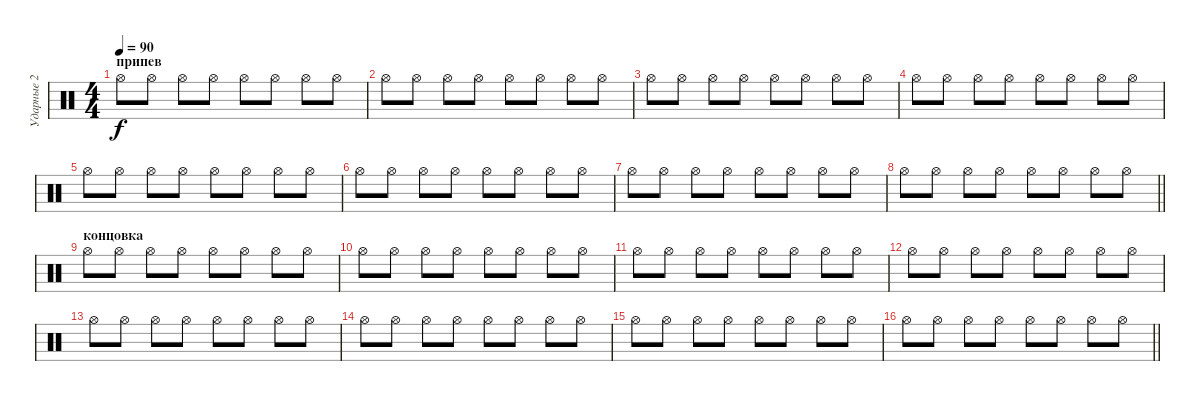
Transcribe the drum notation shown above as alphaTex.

\track ("Ударные 2" "Ударные 2") {instrument percussion}
\staff {score}
\articulation defaults
\ts (4 4)
\section ("" "припев")
\tempo 90
\clef neutral
\ks c "Hi-Hat (open)".8{dy f} "Hi-Hat (open)".8 "Hi-Hat (open)".8 "Hi-Hat (open)".8 "Hi-Hat (open)".8 "Hi-Hat (open)".8 "Hi-Hat (open)".8 "Hi-Hat (open)".8
|
"Hi-Hat (open)".8 "Hi-Hat (open)".8 "Hi-Hat (open)".8 "Hi-Hat (open)".8 "Hi-Hat (open)".8 "Hi-Hat (open)".8 "Hi-Hat (open)".8 "Hi-Hat (open)".8 |
"Hi-Hat (open)".8 "Hi-Hat (open)".8 "Hi-Hat (open)".8 "Hi-Hat (open)".8 "Hi-Hat (open)".8 "Hi-Hat (open)".8 "Hi-Hat (open)".8 "Hi-Hat (open)".8 |
"Hi-Hat (open)".8 "Hi-Hat (open)".8 "Hi-Hat (open)".8 "Hi-Hat (open)".8 "Hi-Hat (open)".8 "Hi-Hat (open)".8 "Hi-Hat (open)".8 "Hi-Hat (open)".8 |
"Hi-Hat (open)".8 "Hi-Hat (open)".8 "Hi-Hat (open)".8 "Hi-Hat (open)".8 "Hi-Hat (open)".8 "Hi-Hat (open)".8 "Hi-Hat (open)".8 "Hi-Hat (open)".8 |
"Hi-Hat (open)".8 "Hi-Hat (open)".8 "Hi-Hat (open)".8 "Hi-Hat (open)".8 "Hi-Hat (open)".8 "Hi-Hat (open)".8 "Hi-Hat (open)".8 "Hi-Hat (open)".8 |
"Hi-Hat (open)".8 "Hi-Hat (open)".8 "Hi-Hat (open)".8 "Hi-Hat (open)".8 "Hi-Hat (open)".8 "Hi-Hat (open)".8 "Hi-Hat (open)".8 "Hi-Hat (open)".8 |
\barLineRight lightlight "Hi-Hat (open)".8 "Hi-Hat (open)".8 "Hi-Hat (open)".8 "Hi-Hat (open)".8 "Hi-Hat (open)".8 "Hi-Hat (open)".8 "Hi-Hat (open)".8 "Hi-Hat (open)".8
|
\section ("" "концовка")
"Hi-Hat (open)".8 "Hi-Hat (open)".8 "Hi-Hat (open)".8 "Hi-Hat (open)".8 "Hi-Hat (open)".8 "Hi-Hat (open)".8 "Hi-Hat (open)".8 "Hi-Hat (open)".8 |
"Hi-Hat (open)".8 "Hi-Hat (open)".8 "Hi-Hat (open)".8 "Hi-Hat (open)".8 "Hi-Hat (open)".8 "Hi-Hat (open)".8 "Hi-Hat (open)".8 "Hi-Hat (open)".8 |
"Hi-Hat (open)".8 "Hi-Hat (open)".8 "Hi-Hat (open)".8 "Hi-Hat (open)".8 "Hi-Hat (open)".8 "Hi-Hat (open)".8 "Hi-Hat (open)".8 "Hi-Hat (open)".8 |
"Hi-Hat (open)".8 "Hi-Hat (open)".8 "Hi-Hat (open)".8 "Hi-Hat (open)".8 "Hi-Hat (open)".8 "Hi-Hat (open)".8 "Hi-Hat (open)".8 "Hi-Hat (open)".8 |
"Hi-Hat (open)".8 "Hi-Hat (open)".8 "Hi-Hat (open)".8 "Hi-Hat (open)".8 "Hi-Hat (open)".8 "Hi-Hat (open)".8 "Hi-Hat (open)".8 "Hi-Hat (open)".8 |
"Hi-Hat (open)".8 "Hi-Hat (open)".8 "Hi-Hat (open)".8 "Hi-Hat (open)".8 "Hi-Hat (open)".8 "Hi-Hat (open)".8 "Hi-Hat (open)".8 "Hi-Hat (open)".8 |
"Hi-Hat (open)".8 "Hi-Hat (open)".8 "Hi-Hat (open)".8 "Hi-Hat (open)".8 "Hi-Hat (open)".8 "Hi-Hat (open)".8 "Hi-Hat (open)".8 "Hi-Hat (open)".8 |
\barLineRight lightlight "Hi-Hat (open)".8 "Hi-Hat (open)".8 "Hi-Hat (open)".8 "Hi-Hat (open)".8 "Hi-Hat (open)".8 "Hi-Hat (open)".8 "Hi-Hat (open)".8 "Hi-Hat (open)".8
